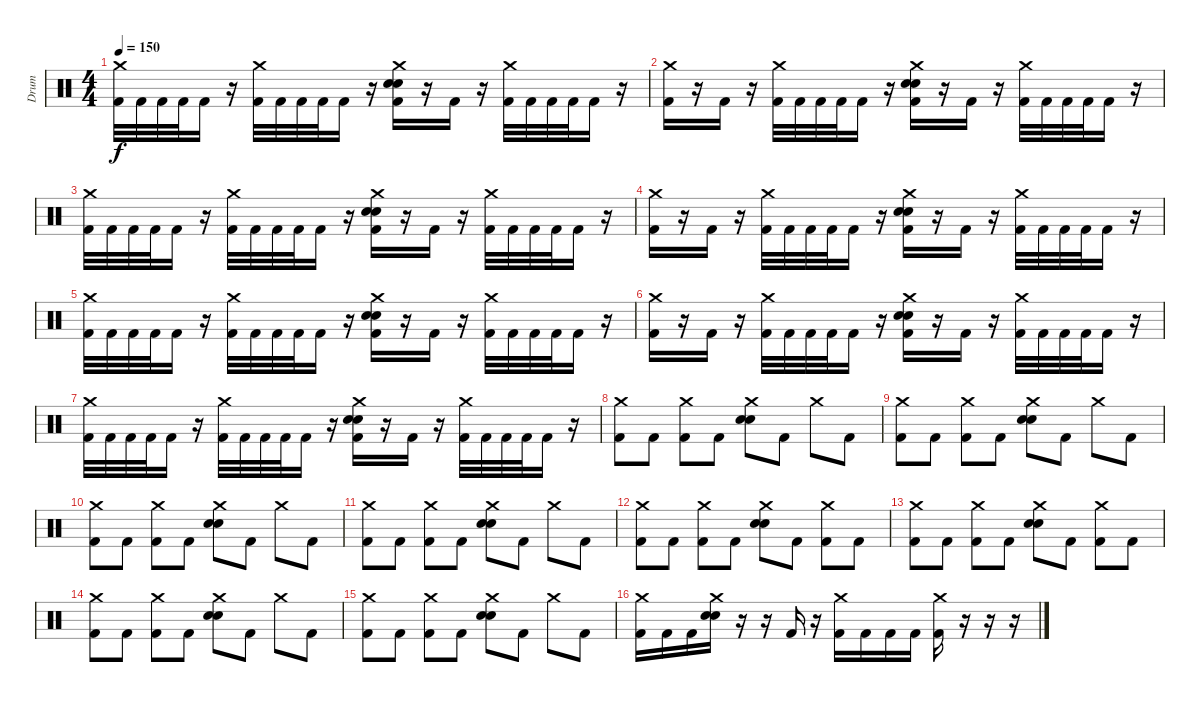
\track ("Drum" "Drum") {instrument percussion}
\staff {score}
\articulation defaults
\ts (4 4)
\tempo 150
\clef neutral
\ks c
("Crash medium (hit)" "Kick (hit) 2").32{dy f} "Kick (hit) 2".32 "Kick (hit) 2".32 "Kick (hit) 2".32 "Kick (hit) 2".16 r.16 ("Crash medium (hit)" "Kick (hit) 2").32 "Kick (hit) 2".32 "Kick (hit) 2".32 "Kick (hit) 2".32 "Kick (hit) 2".16 r.16 ("Crash medium (hit)" "Snare (hit) 2" "Electric Snare (hit)" "Kick (hit) 2").16 r.16 "Kick (hit) 2".16 r.16 ("Crash medium (hit)" "Kick (hit) 2").32 "Kick (hit) 2".32 "Kick (hit) 2".32 "Kick (hit) 2".32 "Kick (hit) 2".16 r.16 |
("Crash medium (hit)" "Kick (hit) 2").16 r.16 "Kick (hit) 2".16 r.16 ("Crash medium (hit)" "Kick (hit) 2").32 "Kick (hit) 2".32 "Kick (hit) 2".32 "Kick (hit) 2".32 "Kick (hit) 2".16 r.16 ("Crash medium (hit)" "Snare (hit) 2" "Electric Snare (hit)" "Kick (hit) 2").16 r.16 "Kick (hit) 2".16 r.16 ("Crash medium (hit)" "Kick (hit) 2").32 "Kick (hit) 2".32 "Kick (hit) 2".32 "Kick (hit) 2".32 "Kick (hit) 2".16 r.16 |
("Crash medium (hit)" "Kick (hit) 2").32 "Kick (hit) 2".32 "Kick (hit) 2".32 "Kick (hit) 2".32 "Kick (hit) 2".16 r.16 ("Crash medium (hit)" "Kick (hit) 2").32 "Kick (hit) 2".32 "Kick (hit) 2".32 "Kick (hit) 2".32 "Kick (hit) 2".16 r.16 ("Crash medium (hit)" "Snare (hit) 2" "Electric Snare (hit)" "Kick (hit) 2").16 r.16 "Kick (hit) 2".16 r.16 ("Crash medium (hit)" "Kick (hit) 2").32 "Kick (hit) 2".32 "Kick (hit) 2".32 "Kick (hit) 2".32 "Kick (hit) 2".16 r.16 |
("Crash medium (hit)" "Kick (hit) 2").16 r.16 "Kick (hit) 2".16 r.16 ("Crash medium (hit)" "Kick (hit) 2").32 "Kick (hit) 2".32 "Kick (hit) 2".32 "Kick (hit) 2".32 "Kick (hit) 2".16 r.16 ("Crash medium (hit)" "Snare (hit) 2" "Electric Snare (hit)" "Kick (hit) 2").16 r.16 "Kick (hit) 2".16 r.16 ("Crash medium (hit)" "Kick (hit) 2").32 "Kick (hit) 2".32 "Kick (hit) 2".32 "Kick (hit) 2".32 "Kick (hit) 2".16 r.16 |
("Crash medium (hit)" "Kick (hit) 2").32 "Kick (hit) 2".32 "Kick (hit) 2".32 "Kick (hit) 2".32 "Kick (hit) 2".16 r.16 ("Crash medium (hit)" "Kick (hit) 2").32 "Kick (hit) 2".32 "Kick (hit) 2".32 "Kick (hit) 2".32 "Kick (hit) 2".16 r.16 ("Crash medium (hit)" "Snare (hit) 2" "Electric Snare (hit)" "Kick (hit) 2").16 r.16 "Kick (hit) 2".16 r.16 ("Crash medium (hit)" "Kick (hit) 2").32 "Kick (hit) 2".32 "Kick (hit) 2".32 "Kick (hit) 2".32 "Kick (hit) 2".16 r.16 |
("Crash medium (hit)" "Kick (hit) 2").16 r.16 "Kick (hit) 2".16 r.16 ("Crash medium (hit)" "Kick (hit) 2").32 "Kick (hit) 2".32 "Kick (hit) 2".32 "Kick (hit) 2".32 "Kick (hit) 2".16 r.16 ("Crash medium (hit)" "Snare (hit) 2" "Electric Snare (hit)" "Kick (hit) 2").16 r.16 "Kick (hit) 2".16 r.16 ("Crash medium (hit)" "Kick (hit) 2").32 "Kick (hit) 2".32 "Kick (hit) 2".32 "Kick (hit) 2".32 "Kick (hit) 2".16 r.16 |
("Crash medium (hit)" "Kick (hit) 2").32 "Kick (hit) 2".32 "Kick (hit) 2".32 "Kick (hit) 2".32 "Kick (hit) 2".16 r.16 ("Crash medium (hit)" "Kick (hit) 2").32 "Kick (hit) 2".32 "Kick (hit) 2".32 "Kick (hit) 2".32 "Kick (hit) 2".16 r.16 ("Crash medium (hit)" "Snare (hit) 2" "Electric Snare (hit)" "Kick (hit) 2").16 r.16 "Kick (hit) 2".16 r.16 ("Crash medium (hit)" "Kick (hit) 2").32 "Kick (hit) 2".32 "Kick (hit) 2".32 "Kick (hit) 2".32 "Kick (hit) 2".16 r.16 |
("Crash medium (hit)" "Kick (hit) 2").8 "Kick (hit) 2".8 ("Crash medium (hit)" "Kick (hit) 2").8 "Kick (hit) 2".8 ("Crash medium (hit)" "Snare (hit) 2" "Electric Snare (hit)").8 "Kick (hit) 2".8 "Crash medium (hit)".8 "Kick (hit) 2".8 |
("Crash medium (hit)" "Kick (hit) 2").8 "Kick (hit) 2".8 ("Crash medium (hit)" "Kick (hit) 2").8 "Kick (hit) 2".8 ("Crash medium (hit)" "Snare (hit) 2" "Electric Snare (hit)").8 "Kick (hit) 2".8 "Crash medium (hit)".8 "Kick (hit) 2".8 |
("Crash medium (hit)" "Kick (hit) 2").8 "Kick (hit) 2".8 ("Crash medium (hit)" "Kick (hit) 2").8 "Kick (hit) 2".8 ("Crash medium (hit)" "Snare (hit) 2" "Electric Snare (hit)").8 "Kick (hit) 2".8 "Crash medium (hit)".8 "Kick (hit) 2".8 |
("Crash medium (hit)" "Kick (hit) 2").8 "Kick (hit) 2".8 ("Crash medium (hit)" "Kick (hit) 2").8 "Kick (hit) 2".8 ("Crash medium (hit)" "Snare (hit) 2" "Electric Snare (hit)").8 "Kick (hit) 2".8 "Crash medium (hit)".8 "Kick (hit) 2".8 |
("Crash medium (hit)" "Kick (hit) 2").8 "Kick (hit) 2".8 ("Crash medium (hit)" "Kick (hit) 2").8 "Kick (hit) 2".8 ("Crash medium (hit)" "Snare (hit) 2" "Electric Snare (hit)").8 "Kick (hit) 2".8 ("Crash medium (hit)" "Kick (hit) 2").8 "Kick (hit) 2".8 |
("Crash medium (hit)" "Kick (hit) 2").8 "Kick (hit) 2".8 ("Crash medium (hit)" "Kick (hit) 2").8 "Kick (hit) 2".8 ("Crash medium (hit)" "Snare (hit) 2" "Electric Snare (hit)").8 "Kick (hit) 2".8 ("Crash medium (hit)" "Kick (hit) 2").8 "Kick (hit) 2".8 |
("Crash medium (hit)" "Kick (hit) 2").8 "Kick (hit) 2".8 ("Crash medium (hit)" "Kick (hit) 2").8 "Kick (hit) 2".8 ("Crash medium (hit)" "Snare (hit) 2" "Electric Snare (hit)").8 "Kick (hit) 2".8 "Crash medium (hit)".8 "Kick (hit) 2".8 |
("Crash medium (hit)" "Kick (hit) 2").8 "Kick (hit) 2".8 ("Crash medium (hit)" "Kick (hit) 2").8 "Kick (hit) 2".8 ("Crash medium (hit)" "Snare (hit) 2" "Electric Snare (hit)").8 "Kick (hit) 2".8 "Crash medium (hit)".8 "Kick (hit) 2".8 |
("Crash medium (hit)" "Kick (hit) 2").16 "Kick (hit) 2".16 "Kick (hit) 2".16 ("Crash medium (hit)" "Snare (hit) 2" "Electric Snare (hit)").16 r.16 r.16 "Kick (hit) 2".16 r.16 ("Crash medium (hit)" "Kick (hit) 2").16 "Kick (hit) 2".16 "Kick (hit) 2".16 "Kick (hit) 2".16 ("Crash medium (hit)" "Kick (hit) 2").16 r.16 r.16 r.16
